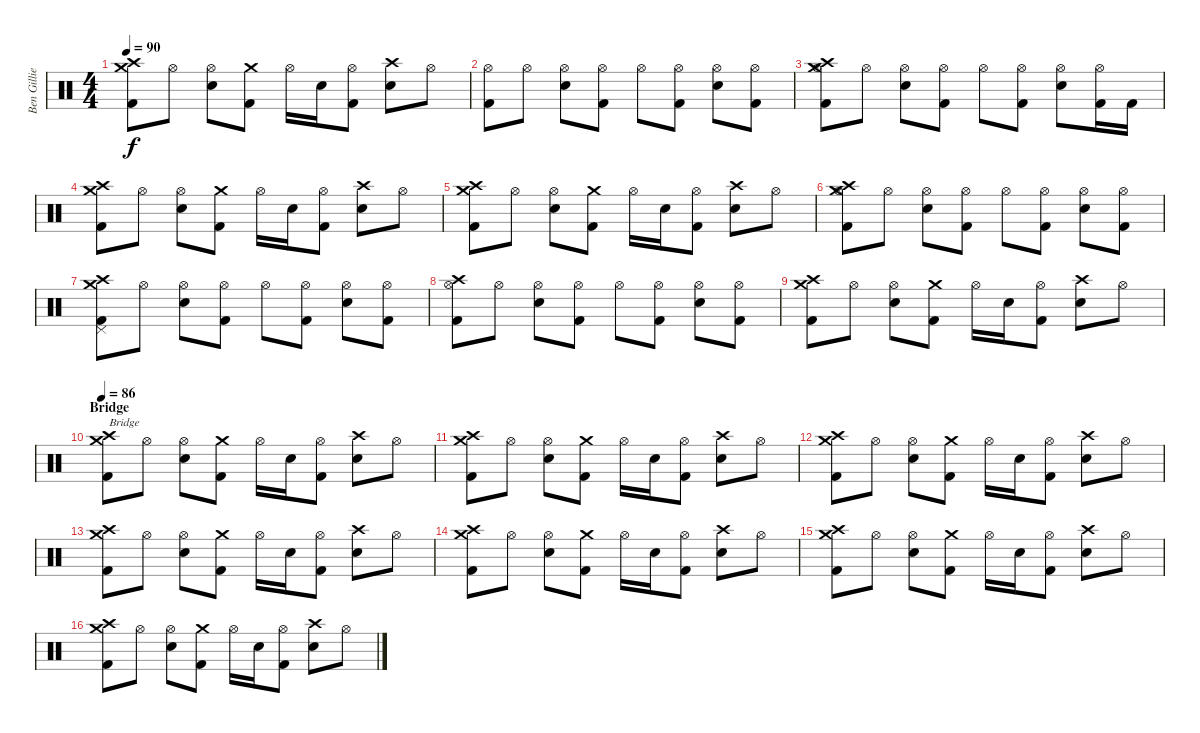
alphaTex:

\track ("Ben Gillies" "Ben Gillie") {instrument percussion}
\staff {score}
\articulation defaults
\ts (4 4)
\tempo 90
\clef neutral
\ks c
("Crash high (hit)" "Crash medium (hit)" "Kick (hit) 2").8{dy f} "Hi-Hat (open)".8 ("Hi-Hat (open)" "Electric Snare (hit)").8 ("Crash medium (hit)" "Kick (hit) 2").8 "Hi-Hat (open)".16 "Electric Snare (hit)".16 ("Hi-Hat (open)" "Kick (hit) 2").8 ("Crash high (hit)" "Electric Snare (hit)").8 "Hi-Hat (open)".8 |
("Hi-Hat (open)" "Kick (hit) 2").8 "Hi-Hat (open)".8 ("Hi-Hat (open)" "Electric Snare (hit)").8 ("Hi-Hat (open)" "Kick (hit) 2").8 "Hi-Hat (open)".8 ("Hi-Hat (open)" "Kick (hit) 2").8 ("Hi-Hat (open)" "Electric Snare (hit)").8 ("Hi-Hat (open)" "Kick (hit) 2").8 |
("Crash high (hit)" "Hi-Hat (open)" "Crash medium (hit)" "Kick (hit) 2").8 "Hi-Hat (open)".8 ("Hi-Hat (open)" "Electric Snare (hit)").8 ("Hi-Hat (open)" "Kick (hit) 2").8 "Hi-Hat (open)".8 ("Hi-Hat (open)" "Kick (hit) 2").8 ("Hi-Hat (open)" "Electric Snare (hit)").8 ("Hi-Hat (open)" "Kick (hit) 2").16 "Kick (hit) 2".16 |
("Crash high (hit)" "Crash medium (hit)" "Kick (hit) 2").8 "Hi-Hat (open)".8 ("Hi-Hat (open)" "Electric Snare (hit)").8 ("Crash medium (hit)" "Kick (hit) 2").8 "Hi-Hat (open)".16 "Electric Snare (hit)".16 ("Hi-Hat (open)" "Kick (hit) 2").8 ("Crash high (hit)" "Electric Snare (hit)").8 "Hi-Hat (open)".8 |
("Crash high (hit)" "Crash medium (hit)" "Kick (hit) 2").8 "Hi-Hat (open)".8 ("Hi-Hat (open)" "Electric Snare (hit)").8 ("Crash medium (hit)" "Kick (hit) 2").8 "Hi-Hat (open)".16 "Electric Snare (hit)".16 ("Hi-Hat (open)" "Kick (hit) 2").8 ("Crash high (hit)" "Electric Snare (hit)").8 "Hi-Hat (open)".8 |
("Crash high (hit)" "Hi-Hat (open)" "Crash medium (hit)" "Kick (hit) 2").8 "Hi-Hat (open)".8 ("Hi-Hat (open)" "Electric Snare (hit)").8 ("Hi-Hat (open)" "Kick (hit) 2").8 "Hi-Hat (open)".8 ("Hi-Hat (open)" "Kick (hit) 2").8 ("Hi-Hat (open)" "Electric Snare (hit)").8 ("Hi-Hat (open)" "Kick (hit) 2").8 |
("Crash high (hit)" "Pedal Hi-Hat (hit)" "Crash medium (hit)" "Kick (hit) 2").8 "Hi-Hat (open)".8 ("Hi-Hat (open)" "Electric Snare (hit)").8 ("Hi-Hat (open)" "Kick (hit) 2").8 "Hi-Hat (open)".8 ("Hi-Hat (open)" "Kick (hit) 2").8 ("Hi-Hat (open)" "Electric Snare (hit)").8 ("Hi-Hat (open)" "Kick (hit) 2").8 |
("Crash high (hit)" "Hi-Hat (open)" "Kick (hit) 2").8 "Hi-Hat (open)".8 ("Hi-Hat (open)" "Electric Snare (hit)").8 ("Hi-Hat (open)" "Kick (hit) 2").8 "Hi-Hat (open)".8 ("Hi-Hat (open)" "Kick (hit) 2").8 ("Hi-Hat (open)" "Electric Snare (hit)").8 ("Hi-Hat (open)" "Kick (hit) 2").8 |
("Crash high (hit)" "Crash medium (hit)" "Kick (hit) 2").8 "Hi-Hat (open)".8 ("Hi-Hat (open)" "Electric Snare (hit)").8 ("Crash medium (hit)" "Kick (hit) 2").8 "Hi-Hat (open)".16 "Electric Snare (hit)".16 ("Hi-Hat (open)" "Kick (hit) 2").8 ("Crash high (hit)" "Electric Snare (hit)").8 "Hi-Hat (open)".8 |
\section ("" "Bridge")
\tempo 86
("Crash medium (hit)" "Crash high (hit)" "Kick (hit) 2").8{txt "Bridge"} "Hi-Hat (open)".8 ("Hi-Hat (open)" "Electric Snare (hit)").8 ("Crash medium (hit)" "Kick (hit) 2").8 "Hi-Hat (open)".16 "Electric Snare (hit)".16 ("Hi-Hat (open)" "Kick (hit) 2").8 ("Crash high (hit)" "Electric Snare (hit)").8 "Hi-Hat (open)".8 |
("Crash medium (hit)" "Crash high (hit)" "Kick (hit) 2").8 "Hi-Hat (open)".8 ("Hi-Hat (open)" "Electric Snare (hit)").8 ("Crash medium (hit)" "Kick (hit) 2").8 "Hi-Hat (open)".16 "Electric Snare (hit)".16 ("Hi-Hat (open)" "Kick (hit) 2").8 ("Crash high (hit)" "Electric Snare (hit)").8 "Hi-Hat (open)".8 |
("Crash medium (hit)" "Crash high (hit)" "Kick (hit) 2").8 "Hi-Hat (open)".8 ("Hi-Hat (open)" "Electric Snare (hit)").8 ("Crash medium (hit)" "Kick (hit) 2").8 "Hi-Hat (open)".16 "Electric Snare (hit)".16 ("Hi-Hat (open)" "Kick (hit) 2").8 ("Crash high (hit)" "Electric Snare (hit)").8 "Hi-Hat (open)".8 |
("Crash medium (hit)" "Crash high (hit)" "Kick (hit) 2").8 "Hi-Hat (open)".8 ("Hi-Hat (open)" "Electric Snare (hit)").8 ("Crash medium (hit)" "Kick (hit) 2").8 "Hi-Hat (open)".16 "Electric Snare (hit)".16 ("Hi-Hat (open)" "Kick (hit) 2").8 ("Crash high (hit)" "Electric Snare (hit)").8 "Hi-Hat (open)".8 |
("Crash medium (hit)" "Crash high (hit)" "Kick (hit) 2").8 "Hi-Hat (open)".8 ("Hi-Hat (open)" "Electric Snare (hit)").8 ("Crash medium (hit)" "Kick (hit) 2").8 "Hi-Hat (open)".16 "Electric Snare (hit)".16 ("Hi-Hat (open)" "Kick (hit) 2").8 ("Crash high (hit)" "Electric Snare (hit)").8 "Hi-Hat (open)".8 |
("Crash medium (hit)" "Crash high (hit)" "Kick (hit) 2").8 "Hi-Hat (open)".8 ("Hi-Hat (open)" "Electric Snare (hit)").8 ("Crash medium (hit)" "Kick (hit) 2").8 "Hi-Hat (open)".16 "Electric Snare (hit)".16 ("Hi-Hat (open)" "Kick (hit) 2").8 ("Crash high (hit)" "Electric Snare (hit)").8 "Hi-Hat (open)".8 |
("Crash medium (hit)" "Crash high (hit)" "Kick (hit) 2").8 "Hi-Hat (open)".8 ("Hi-Hat (open)" "Electric Snare (hit)").8 ("Crash medium (hit)" "Kick (hit) 2").8 "Hi-Hat (open)".16 "Electric Snare (hit)".16 ("Hi-Hat (open)" "Kick (hit) 2").8 ("Crash high (hit)" "Electric Snare (hit)").8 "Hi-Hat (open)".8
